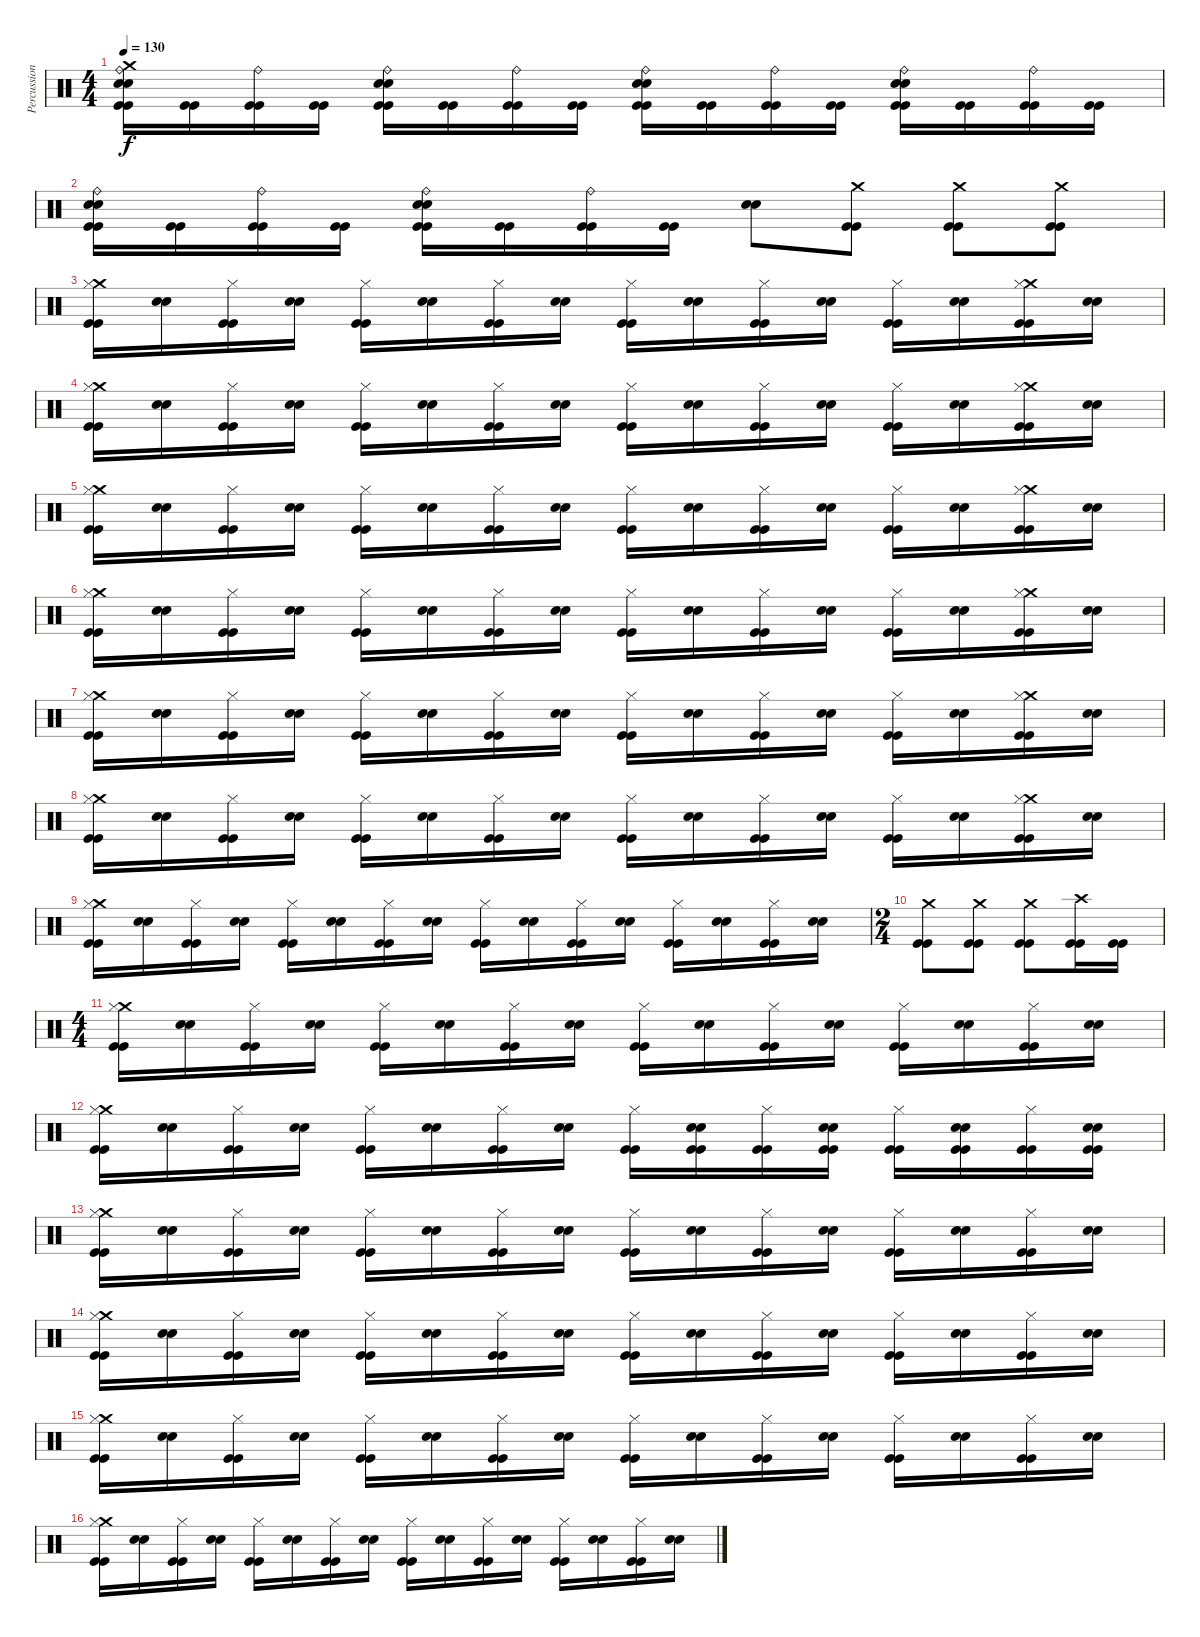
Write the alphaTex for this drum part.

\track ("Percussion" "Percussion") {instrument percussion}
\staff {score}
\articulation defaults
\ts (4 4)
\tempo 130
\clef neutral
\ks c
("Crash medium (hit)" "Snare (hit) 2" "Snare (hit) 2" "Ride (bell)" "Kick (hit)" "Kick (hit)").16{dy f} ("Kick (hit)" "Kick (hit)").16 ("Ride (bell)" "Kick (hit)" "Kick (hit)").16 ("Kick (hit)" "Kick (hit)").16 ("Snare (hit) 2" "Snare (hit) 2" "Ride (bell)" "Kick (hit)" "Kick (hit)").16 ("Kick (hit)" "Kick (hit)").16 ("Ride (bell)" "Kick (hit)" "Kick (hit)").16 ("Kick (hit)" "Kick (hit)").16 ("Snare (hit) 2" "Snare (hit) 2" "Ride (bell)" "Kick (hit)" "Kick (hit)").16 ("Kick (hit)" "Kick (hit)").16 ("Ride (bell)" "Kick (hit)" "Kick (hit)").16 ("Kick (hit)" "Kick (hit)").16 ("Snare (hit) 2" "Snare (hit) 2" "Ride (bell)" "Kick (hit)" "Kick (hit)").16 ("Kick (hit)" "Kick (hit)").16 ("Ride (bell)" "Kick (hit)" "Kick (hit)").16 ("Kick (hit)" "Kick (hit)").16 |
("Snare (hit) 2" "Snare (hit) 2" "Ride (bell)" "Kick (hit)" "Kick (hit)").16 ("Kick (hit)" "Kick (hit)").16 ("Ride (bell)" "Kick (hit)" "Kick (hit)").16 ("Kick (hit)" "Kick (hit)").16 ("Snare (hit) 2" "Snare (hit) 2" "Ride (bell)" "Kick (hit)" "Kick (hit)").16 ("Kick (hit)" "Kick (hit)").16 ("Ride (bell)" "Kick (hit)" "Kick (hit)").16 ("Kick (hit)" "Kick (hit)").16 ("Snare (hit) 2" "Snare (hit) 2").8 ("Crash medium (hit)" "Kick (hit)" "Kick (hit)").8 ("Crash medium (hit)" "Kick (hit)" "Kick (hit)").8 ("Crash medium (hit)" "Kick (hit)" "Kick (hit)").8 |
("Crash medium (hit)" "Hi-Hat (closed)" "Kick (hit)" "Kick (hit)").16 ("Snare (hit) 2" "Snare (hit) 2").16 ("Hi-Hat (closed)" "Kick (hit)" "Kick (hit)").16 ("Snare (hit) 2" "Snare (hit) 2").16 ("Hi-Hat (closed)" "Kick (hit)" "Kick (hit)").16 ("Snare (hit) 2" "Snare (hit) 2").16 ("Hi-Hat (closed)" "Kick (hit)" "Kick (hit)").16 ("Snare (hit) 2" "Snare (hit) 2").16 ("Hi-Hat (closed)" "Kick (hit)" "Kick (hit)").16 ("Snare (hit) 2" "Snare (hit) 2").16 ("Hi-Hat (closed)" "Kick (hit)" "Kick (hit)").16 ("Snare (hit) 2" "Snare (hit) 2").16 ("Hi-Hat (closed)" "Kick (hit)" "Kick (hit)").16 ("Snare (hit) 2" "Snare (hit) 2").16 ("Crash medium (hit)" "Hi-Hat (closed)" "Kick (hit)" "Kick (hit)").16 ("Snare (hit) 2" "Snare (hit) 2").16 |
("Crash medium (hit)" "Hi-Hat (closed)" "Kick (hit)" "Kick (hit)").16 ("Snare (hit) 2" "Snare (hit) 2").16 ("Hi-Hat (closed)" "Kick (hit)" "Kick (hit)").16 ("Snare (hit) 2" "Snare (hit) 2").16 ("Hi-Hat (closed)" "Kick (hit)" "Kick (hit)").16 ("Snare (hit) 2" "Snare (hit) 2").16 ("Hi-Hat (closed)" "Kick (hit)" "Kick (hit)").16 ("Snare (hit) 2" "Snare (hit) 2").16 ("Hi-Hat (closed)" "Kick (hit)" "Kick (hit)").16 ("Snare (hit) 2" "Snare (hit) 2").16 ("Hi-Hat (closed)" "Kick (hit)" "Kick (hit)").16 ("Snare (hit) 2" "Snare (hit) 2").16 ("Hi-Hat (closed)" "Kick (hit)" "Kick (hit)").16 ("Snare (hit) 2" "Snare (hit) 2").16 ("Crash medium (hit)" "Hi-Hat (closed)" "Kick (hit)" "Kick (hit)").16 ("Snare (hit) 2" "Snare (hit) 2").16 |
("Crash medium (hit)" "Hi-Hat (closed)" "Kick (hit)" "Kick (hit)").16 ("Snare (hit) 2" "Snare (hit) 2").16 ("Hi-Hat (closed)" "Kick (hit)" "Kick (hit)").16 ("Snare (hit) 2" "Snare (hit) 2").16 ("Hi-Hat (closed)" "Kick (hit)" "Kick (hit)").16 ("Snare (hit) 2" "Snare (hit) 2").16 ("Hi-Hat (closed)" "Kick (hit)" "Kick (hit)").16 ("Snare (hit) 2" "Snare (hit) 2").16 ("Hi-Hat (closed)" "Kick (hit)" "Kick (hit)").16 ("Snare (hit) 2" "Snare (hit) 2").16 ("Hi-Hat (closed)" "Kick (hit)" "Kick (hit)").16 ("Snare (hit) 2" "Snare (hit) 2").16 ("Hi-Hat (closed)" "Kick (hit)" "Kick (hit)").16 ("Snare (hit) 2" "Snare (hit) 2").16 ("Crash medium (hit)" "Hi-Hat (closed)" "Kick (hit)" "Kick (hit)").16 ("Snare (hit) 2" "Snare (hit) 2").16 |
("Crash medium (hit)" "Hi-Hat (closed)" "Kick (hit)" "Kick (hit)").16 ("Snare (hit) 2" "Snare (hit) 2").16 ("Hi-Hat (closed)" "Kick (hit)" "Kick (hit)").16 ("Snare (hit) 2" "Snare (hit) 2").16 ("Hi-Hat (closed)" "Kick (hit)" "Kick (hit)").16 ("Snare (hit) 2" "Snare (hit) 2").16 ("Hi-Hat (closed)" "Kick (hit)" "Kick (hit)").16 ("Snare (hit) 2" "Snare (hit) 2").16 ("Hi-Hat (closed)" "Kick (hit)" "Kick (hit)").16 ("Snare (hit) 2" "Snare (hit) 2").16 ("Hi-Hat (closed)" "Kick (hit)" "Kick (hit)").16 ("Snare (hit) 2" "Snare (hit) 2").16 ("Hi-Hat (closed)" "Kick (hit)" "Kick (hit)").16 ("Snare (hit) 2" "Snare (hit) 2").16 ("Crash medium (hit)" "Hi-Hat (closed)" "Kick (hit)" "Kick (hit)").16 ("Snare (hit) 2" "Snare (hit) 2").16 |
("Crash medium (hit)" "Hi-Hat (closed)" "Kick (hit)" "Kick (hit)").16 ("Snare (hit) 2" "Snare (hit) 2").16 ("Hi-Hat (closed)" "Kick (hit)" "Kick (hit)").16 ("Snare (hit) 2" "Snare (hit) 2").16 ("Hi-Hat (closed)" "Kick (hit)" "Kick (hit)").16 ("Snare (hit) 2" "Snare (hit) 2").16 ("Hi-Hat (closed)" "Kick (hit)" "Kick (hit)").16 ("Snare (hit) 2" "Snare (hit) 2").16 ("Hi-Hat (closed)" "Kick (hit)" "Kick (hit)").16 ("Snare (hit) 2" "Snare (hit) 2").16 ("Hi-Hat (closed)" "Kick (hit)" "Kick (hit)").16 ("Snare (hit) 2" "Snare (hit) 2").16 ("Hi-Hat (closed)" "Kick (hit)" "Kick (hit)").16 ("Snare (hit) 2" "Snare (hit) 2").16 ("Crash medium (hit)" "Hi-Hat (closed)" "Kick (hit)" "Kick (hit)").16 ("Snare (hit) 2" "Snare (hit) 2").16 |
("Crash medium (hit)" "Hi-Hat (closed)" "Kick (hit)" "Kick (hit)").16 ("Snare (hit) 2" "Snare (hit) 2").16 ("Hi-Hat (closed)" "Kick (hit)" "Kick (hit)").16 ("Snare (hit) 2" "Snare (hit) 2").16 ("Hi-Hat (closed)" "Kick (hit)" "Kick (hit)").16 ("Snare (hit) 2" "Snare (hit) 2").16 ("Hi-Hat (closed)" "Kick (hit)" "Kick (hit)").16 ("Snare (hit) 2" "Snare (hit) 2").16 ("Hi-Hat (closed)" "Kick (hit)" "Kick (hit)").16 ("Snare (hit) 2" "Snare (hit) 2").16 ("Hi-Hat (closed)" "Kick (hit)" "Kick (hit)").16 ("Snare (hit) 2" "Snare (hit) 2").16 ("Hi-Hat (closed)" "Kick (hit)" "Kick (hit)").16 ("Snare (hit) 2" "Snare (hit) 2").16 ("Crash medium (hit)" "Hi-Hat (closed)" "Kick (hit)" "Kick (hit)").16 ("Snare (hit) 2" "Snare (hit) 2").16 |
("Crash medium (hit)" "Hi-Hat (closed)" "Kick (hit)" "Kick (hit)").16 ("Snare (hit) 2" "Snare (hit) 2").16 ("Hi-Hat (closed)" "Kick (hit)" "Kick (hit)").16 ("Snare (hit) 2" "Snare (hit) 2").16 ("Hi-Hat (closed)" "Kick (hit)" "Kick (hit)").16 ("Snare (hit) 2" "Snare (hit) 2").16 ("Hi-Hat (closed)" "Kick (hit)" "Kick (hit)").16 ("Snare (hit) 2" "Snare (hit) 2").16 ("Hi-Hat (closed)" "Kick (hit)" "Kick (hit)").16 ("Snare (hit) 2" "Snare (hit) 2").16 ("Hi-Hat (closed)" "Kick (hit)" "Kick (hit)").16 ("Snare (hit) 2" "Snare (hit) 2").16 ("Hi-Hat (closed)" "Kick (hit)" "Kick (hit)").16 ("Snare (hit) 2" "Snare (hit) 2").16 ("Hi-Hat (closed)" "Kick (hit)" "Kick (hit)").16 ("Snare (hit) 2" "Snare (hit) 2").16 |
\ts (2 4)
("Crash medium (hit)" "Kick (hit)" "Kick (hit)").8 ("Crash medium (hit)" "Kick (hit)" "Kick (hit)").8 ("Crash medium (hit)" "Kick (hit)" "Kick (hit)").8 ("Crash high (hit)" "Kick (hit)" "Kick (hit)").16 ("Kick (hit)" "Kick (hit)").16 |
\ts (4 4)
("Crash medium (hit)" "Hi-Hat (closed)" "Kick (hit)" "Kick (hit)").16 ("Snare (hit) 2" "Snare (hit) 2").16 ("Hi-Hat (closed)" "Kick (hit)" "Kick (hit)").16 ("Snare (hit) 2" "Snare (hit) 2").16 ("Hi-Hat (closed)" "Kick (hit)" "Kick (hit)").16 ("Snare (hit) 2" "Snare (hit) 2").16 ("Hi-Hat (closed)" "Kick (hit)" "Kick (hit)").16 ("Snare (hit) 2" "Snare (hit) 2").16 ("Hi-Hat (closed)" "Kick (hit)" "Kick (hit)").16 ("Snare (hit) 2" "Snare (hit) 2").16 ("Hi-Hat (closed)" "Kick (hit)" "Kick (hit)").16 ("Snare (hit) 2" "Snare (hit) 2").16 ("Hi-Hat (closed)" "Kick (hit)" "Kick (hit)").16 ("Snare (hit) 2" "Snare (hit) 2").16 ("Hi-Hat (closed)" "Kick (hit)" "Kick (hit)").16 ("Snare (hit) 2" "Snare (hit) 2").16 |
("Crash medium (hit)" "Hi-Hat (closed)" "Kick (hit)" "Kick (hit)").16 ("Snare (hit) 2" "Snare (hit) 2").16 ("Hi-Hat (closed)" "Kick (hit)" "Kick (hit)").16 ("Snare (hit) 2" "Snare (hit) 2").16 ("Hi-Hat (closed)" "Kick (hit)" "Kick (hit)").16 ("Snare (hit) 2" "Snare (hit) 2").16 ("Hi-Hat (closed)" "Kick (hit)" "Kick (hit)").16 ("Snare (hit) 2" "Snare (hit) 2").16 ("Hi-Hat (closed)" "Kick (hit)" "Kick (hit)").16 ("Snare (hit) 2" "Snare (hit) 2" "Kick (hit)" "Kick (hit)").16 ("Hi-Hat (closed)" "Kick (hit)" "Kick (hit)").16 ("Snare (hit) 2" "Snare (hit) 2" "Kick (hit)" "Kick (hit)").16 ("Hi-Hat (closed)" "Kick (hit)" "Kick (hit)").16 ("Snare (hit) 2" "Snare (hit) 2" "Kick (hit)" "Kick (hit)").16 ("Hi-Hat (closed)" "Kick (hit)" "Kick (hit)").16 ("Snare (hit) 2" "Snare (hit) 2" "Kick (hit)" "Kick (hit)").16 |
("Crash medium (hit)" "Hi-Hat (closed)" "Kick (hit)" "Kick (hit)").16 ("Snare (hit) 2" "Snare (hit) 2").16 ("Hi-Hat (closed)" "Kick (hit)" "Kick (hit)").16 ("Snare (hit) 2" "Snare (hit) 2").16 ("Hi-Hat (closed)" "Kick (hit)" "Kick (hit)").16 ("Snare (hit) 2" "Snare (hit) 2").16 ("Hi-Hat (closed)" "Kick (hit)" "Kick (hit)").16 ("Snare (hit) 2" "Snare (hit) 2").16 ("Hi-Hat (closed)" "Kick (hit)" "Kick (hit)").16 ("Snare (hit) 2" "Snare (hit) 2").16 ("Hi-Hat (closed)" "Kick (hit)" "Kick (hit)").16 ("Snare (hit) 2" "Snare (hit) 2").16 ("Hi-Hat (closed)" "Kick (hit)" "Kick (hit)").16 ("Snare (hit) 2" "Snare (hit) 2").16 ("Hi-Hat (closed)" "Kick (hit)" "Kick (hit)").16 ("Snare (hit) 2" "Snare (hit) 2").16 |
("Crash medium (hit)" "Hi-Hat (closed)" "Kick (hit)" "Kick (hit)").16 ("Snare (hit) 2" "Snare (hit) 2").16 ("Hi-Hat (closed)" "Kick (hit)" "Kick (hit)").16 ("Snare (hit) 2" "Snare (hit) 2").16 ("Hi-Hat (closed)" "Kick (hit)" "Kick (hit)").16 ("Snare (hit) 2" "Snare (hit) 2").16 ("Hi-Hat (closed)" "Kick (hit)" "Kick (hit)").16 ("Snare (hit) 2" "Snare (hit) 2").16 ("Hi-Hat (closed)" "Kick (hit)" "Kick (hit)").16 ("Snare (hit) 2" "Snare (hit) 2").16 ("Hi-Hat (closed)" "Kick (hit)" "Kick (hit)").16 ("Snare (hit) 2" "Snare (hit) 2").16 ("Hi-Hat (closed)" "Kick (hit)" "Kick (hit)").16 ("Snare (hit) 2" "Snare (hit) 2").16 ("Hi-Hat (closed)" "Kick (hit)" "Kick (hit)").16 ("Snare (hit) 2" "Snare (hit) 2").16 |
("Crash medium (hit)" "Hi-Hat (closed)" "Kick (hit)" "Kick (hit)").16 ("Snare (hit) 2" "Snare (hit) 2").16 ("Hi-Hat (closed)" "Kick (hit)" "Kick (hit)").16 ("Snare (hit) 2" "Snare (hit) 2").16 ("Hi-Hat (closed)" "Kick (hit)" "Kick (hit)").16 ("Snare (hit) 2" "Snare (hit) 2").16 ("Hi-Hat (closed)" "Kick (hit)" "Kick (hit)").16 ("Snare (hit) 2" "Snare (hit) 2").16 ("Hi-Hat (closed)" "Kick (hit)" "Kick (hit)").16 ("Snare (hit) 2" "Snare (hit) 2").16 ("Hi-Hat (closed)" "Kick (hit)" "Kick (hit)").16 ("Snare (hit) 2" "Snare (hit) 2").16 ("Hi-Hat (closed)" "Kick (hit)" "Kick (hit)").16 ("Snare (hit) 2" "Snare (hit) 2").16 ("Hi-Hat (closed)" "Kick (hit)" "Kick (hit)").16 ("Snare (hit) 2" "Snare (hit) 2").16 |
("Crash medium (hit)" "Hi-Hat (closed)" "Kick (hit)" "Kick (hit)").16 ("Snare (hit) 2" "Snare (hit) 2").16 ("Hi-Hat (closed)" "Kick (hit)" "Kick (hit)").16 ("Snare (hit) 2" "Snare (hit) 2").16 ("Hi-Hat (closed)" "Kick (hit)" "Kick (hit)").16 ("Snare (hit) 2" "Snare (hit) 2").16 ("Hi-Hat (closed)" "Kick (hit)" "Kick (hit)").16 ("Snare (hit) 2" "Snare (hit) 2").16 ("Hi-Hat (closed)" "Kick (hit)" "Kick (hit)").16 ("Snare (hit) 2" "Snare (hit) 2").16 ("Hi-Hat (closed)" "Kick (hit)" "Kick (hit)").16 ("Snare (hit) 2" "Snare (hit) 2").16 ("Hi-Hat (closed)" "Kick (hit)" "Kick (hit)").16 ("Snare (hit) 2" "Snare (hit) 2").16 ("Hi-Hat (closed)" "Kick (hit)" "Kick (hit)").16 ("Snare (hit) 2" "Snare (hit) 2").16
